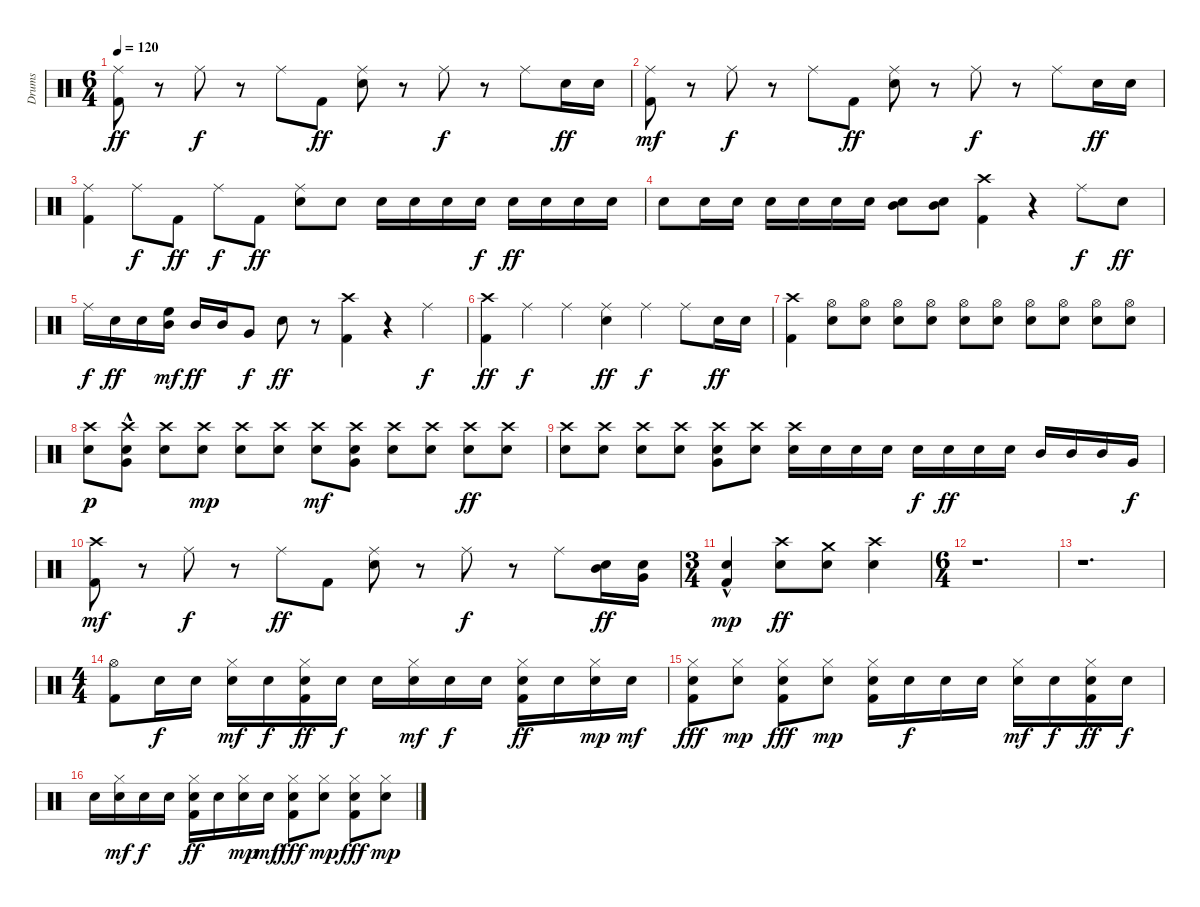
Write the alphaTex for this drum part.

\track ("Drums" "Drums") {instrument percussion}
\staff {score}
\articulation defaults
\ts (6 4)
\tempo 120
\clef neutral
\ks c
("Kick (hit) 2" "Ride (middle)").8{dy ff} r.8 "Ride (middle)".8{dy f} r.8 "Ride (middle)".8 "Kick (hit) 2".8{dy ff} ("Snare (hit) 2" "Ride (middle)").8 r.8 "Ride (middle)".8{dy f} r.8 "Ride (middle)".8 "Snare (hit) 2".16{dy ff} "Snare (hit) 2".16 |
("Kick (hit) 2" "Ride (middle)").8{dy mf} r.8 "Ride (middle)".8{dy f} r.8 "Ride (middle)".8 "Kick (hit) 2".8{dy ff} ("Snare (hit) 2" "Ride (middle)").8 r.8 "Ride (middle)".8{dy f} r.8 "Ride (middle)".8 "Snare (hit) 2".16{dy ff} "Snare (hit) 2".16 |
("Kick (hit) 2" "Ride (middle)").4 "Ride (middle)".8{dy f} "Kick (hit) 2".8{dy ff} "Ride (middle)".8{dy f} "Kick (hit) 2".8{dy ff} ("Snare (hit) 2" "Ride (middle)").8 "Snare (hit) 2".8 "Snare (hit) 2".16 "Snare (hit) 2".16 "Snare (hit) 2".16 "Snare (hit) 2".16{dy f} "Snare (hit) 2".16{dy ff} "Snare (hit) 2".16 "Snare (hit) 2".16 "Snare (hit) 2".16 |
"Snare (hit) 2".8 "Snare (hit) 2".16 "Snare (hit) 2".16 "Snare (hit) 2".16 "Snare (hit) 2".16 "Snare (hit) 2".16 "Snare (hit) 2".16 ("Snare (hit) 2" "Mid Tom (hit)").8 ("Snare (hit) 2" "Mid Tom (hit)").8 ("Kick (hit) 2" "Crash high (hit)").4 r.4 "Ride (middle)".8{dy f} "Snare (hit) 2".8{dy ff} |
"Ride (middle)".16{dy f} "Snare (hit) 2".16{dy ff} "Snare (hit) 2".16 ("Mid Tom (hit)" "High Floor Tom (hit)").16{dy mf} "Mid Tom (hit)".16{dy ff} "Mid Tom (hit)".16 "Very Low Tom (hit)".8{dy f} "Snare (hit) 2".8{dy ff} r.8 ("Kick (hit) 2" "Crash high (hit)").4 r.4 "Ride (middle)".4{dy f} |
("Kick (hit) 2" "Crash high (hit)").4{dy ff} "Ride (middle)".4{dy f} "Ride (middle)".4 ("Snare (hit) 2" "Ride (middle)").4{dy ff} "Ride (middle)".4{dy f} "Ride (middle)".8 "Snare (hit) 2".16{dy ff} "Snare (hit) 2".16 |
("Kick (hit) 2" "Crash high (hit)").4 ("Snare (hit) 2" "Hi-Hat (open)").8 ("Snare (hit) 2" "Hi-Hat (open)").8 ("Snare (hit) 2" "Hi-Hat (open)").8 ("Snare (hit) 2" "Hi-Hat (open)").8 ("Snare (hit) 2" "Hi-Hat (open)").8 ("Snare (hit) 2" "Hi-Hat (open)").8 ("Snare (hit) 2" "Hi-Hat (open)").8 ("Snare (hit) 2" "Hi-Hat (open)").8 ("Snare (hit) 2" "Hi-Hat (open)").8 ("Snare (hit) 2" "Hi-Hat (open)").8 |
("Snare (hit) 2" "Crash high (hit)").8{dy p} ("Snare (hit) 2" "Very Low Tom (hit)" "Crash high (hit)"{hac}).8 ("Snare (hit) 2" "Crash high (hit)").8 ("Snare (hit) 2" "Crash high (hit)").8{dy mp} ("Snare (hit) 2" "Crash high (hit)").8 ("Snare (hit) 2" "Crash high (hit)").8 ("Snare (hit) 2" "Crash high (hit)").8{dy mf} ("Snare (hit) 2" "Very Low Tom (hit)" "Crash high (hit)").8 ("Snare (hit) 2" "Crash high (hit)").8 ("Snare (hit) 2" "Crash high (hit)").8 ("Snare (hit) 2" "Crash high (hit)").8{dy ff} ("Snare (hit) 2" "Crash high (hit)").8 |
("Snare (hit) 2" "Crash high (hit)").8 ("Snare (hit) 2" "Crash high (hit)").8 ("Snare (hit) 2" "Crash high (hit)").8 ("Snare (hit) 2" "Crash high (hit)").8 ("Snare (hit) 2" "Very Low Tom (hit)" "Crash high (hit)").8 ("Snare (hit) 2" "Crash high (hit)").8 ("Snare (hit) 2" "Crash high (hit)").16 "Snare (hit) 2".16 "Snare (hit) 2".16 "Snare (hit) 2".16 "Snare (hit) 2".16{dy f} "Snare (hit) 2".16{dy ff} "Snare (hit) 2".16 "Snare (hit) 2".16 "Mid Tom (hit)".16 "Mid Tom (hit)".16 "Mid Tom (hit)".16 "Very Low Tom (hit)".16{dy f} |
("Kick (hit) 2" "Crash high (hit)").8{dy mf} r.8 "Ride (middle)".8{dy f} r.8 "Ride (middle)".8{dy ff} "Kick (hit) 2".8 ("Snare (hit) 2" "Ride (middle)").8 r.8 "Ride (middle)".8{dy f} r.8 "Ride (middle)".8 ("Snare (hit) 2" "Mid Tom (hit)").16{dy ff} ("Snare (hit) 2" "Very Low Tom (hit)").16 |
\ts (3 4)
("Kick (hit) 2" "Snare (hit) 2"{hac}).4{dy mp} ("Snare (hit) 2" "Crash high (hit)").8{dy ff} ("Snare (hit) 2" "Crash medium (hit)").8 ("Snare (hit) 2" "Crash high (hit)").4 |
\ts (6 4)
r.1{d} |
r.1{d} |
\ts (4 4)
("Kick (hit) 2" "Hi-Hat (open)").8 "Electric Snare (hit)".16{dy f} "Electric Snare (hit)".16 ("Electric Snare (hit)" "Hi-Hat (closed)").16{dy mf} "Electric Snare (hit)".16{dy f} ("Kick (hit) 2" "Electric Snare (hit)" "Hi-Hat (closed)").16{dy ff} "Electric Snare (hit)".16{dy f} "Electric Snare (hit)".16 ("Electric Snare (hit)" "Hi-Hat (closed)").16{dy mf} "Electric Snare (hit)".16{dy f} "Electric Snare (hit)".16 ("Kick (hit) 2" "Electric Snare (hit)" "Hi-Hat (closed)").16{dy ff} "Electric Snare (hit)".16 ("Electric Snare (hit)" "Hi-Hat (closed)").16{dy mp} "Electric Snare (hit)".16{dy mf} |
("Kick (hit) 2" "Electric Snare (hit)" "Hi-Hat (closed)").8{dy fff} ("Electric Snare (hit)" "Hi-Hat (closed)").8{dy mp} ("Kick (hit) 2" "Electric Snare (hit)" "Hi-Hat (closed)").8{dy fff} ("Electric Snare (hit)" "Hi-Hat (closed)").8{dy mp} ("Kick (hit) 2" "Electric Snare (hit)" "Hi-Hat (closed)").16 "Electric Snare (hit)".16{dy f} "Electric Snare (hit)".16 "Electric Snare (hit)".16 ("Electric Snare (hit)" "Hi-Hat (closed)").16{dy mf} "Electric Snare (hit)".16{dy f} ("Kick (hit) 2" "Electric Snare (hit)" "Hi-Hat (closed)").16{dy ff} "Electric Snare (hit)".16{dy f} |
"Electric Snare (hit)".16 ("Electric Snare (hit)" "Hi-Hat (closed)").16{dy mf} "Electric Snare (hit)".16{dy f} "Electric Snare (hit)".16 ("Kick (hit) 2" "Electric Snare (hit)" "Hi-Hat (closed)").16{dy ff} "Electric Snare (hit)".16 ("Electric Snare (hit)" "Hi-Hat (closed)").16{dy mp} "Electric Snare (hit)".16{dy mf} ("Kick (hit) 2" "Electric Snare (hit)" "Hi-Hat (closed)").8{dy fff} ("Electric Snare (hit)" "Hi-Hat (closed)").8{dy mp} ("Kick (hit) 2" "Electric Snare (hit)" "Hi-Hat (closed)").8{dy fff} ("Electric Snare (hit)" "Hi-Hat (closed)").8{dy mp}
